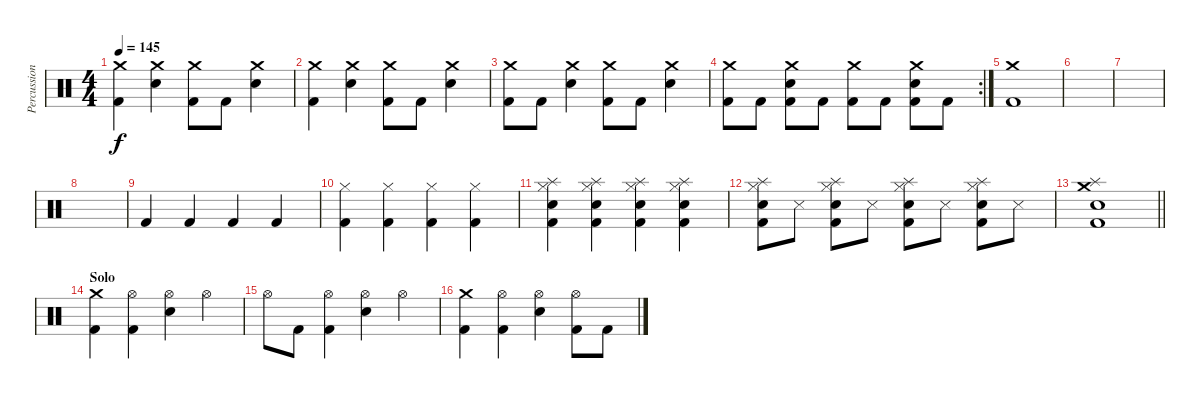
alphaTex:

\track ("Percussion" "Percussion") {instrument percussion}
\staff {score}
\articulation defaults
\ts (4 4)
\tempo 145
\clef neutral
\ks c
("Crash medium (hit)" "Kick (hit) 2").4{dy f} ("Crash medium (hit)" "Snare (hit) 2").4 ("Crash medium (hit)" "Kick (hit) 2").8 "Kick (hit) 2".8 ("Crash medium (hit)" "Snare (hit) 2").4 |
("Crash medium (hit)" "Kick (hit) 2").4 ("Crash medium (hit)" "Snare (hit) 2").4 ("Crash medium (hit)" "Kick (hit) 2").8 "Kick (hit) 2".8 ("Crash medium (hit)" "Snare (hit) 2").4 |
("Crash medium (hit)" "Kick (hit) 2").8 "Kick (hit) 2".8 ("Crash medium (hit)" "Snare (hit) 2").4 ("Crash medium (hit)" "Kick (hit) 2").8 "Kick (hit) 2".8 ("Crash medium (hit)" "Snare (hit) 2").4 |
\rc 2
("Crash medium (hit)" "Kick (hit) 2").8 "Kick (hit) 2".8 ("Crash medium (hit)" "Snare (hit) 2" "Kick (hit) 2").8 "Kick (hit) 2".8 ("Crash medium (hit)" "Kick (hit) 2").8 "Kick (hit) 2".8 ("Crash medium (hit)" "Snare (hit) 2" "Kick (hit) 2").8 "Kick (hit) 2".8 |
("Crash medium (hit)" "Kick (hit) 2").1 |
|
|
|
"Kick (hit) 2".4 "Kick (hit) 2".4 "Kick (hit) 2".4 "Kick (hit) 2".4 |
("Hi-Hat (closed)" "Kick (hit) 2").4 ("Hi-Hat (closed)" "Kick (hit) 2").4 ("Hi-Hat (closed)" "Kick (hit) 2").4 ("Hi-Hat (closed)" "Kick (hit) 2").4 |
("Hi-Hat (closed)" "Splash (hit)" "Snare (hit) 2" "Kick (hit) 2").4 ("Hi-Hat (closed)" "Splash (hit)" "Snare (hit) 2" "Kick (hit) 2").4 ("Hi-Hat (closed)" "Splash (hit)" "Snare (hit) 2" "Kick (hit) 2").4 ("Hi-Hat (closed)" "Splash (hit)" "Snare (hit) 2" "Kick (hit) 2").4 |
("Hi-Hat (closed)" "Splash (hit)" "Snare (hit) 2" "Kick (hit) 2").8 "Snare (side stick) 3".8 ("Hi-Hat (closed)" "Splash (hit)" "Snare (hit) 2" "Kick (hit) 2").8 "Snare (side stick) 3".8 ("Hi-Hat (closed)" "Splash (hit)" "Snare (hit) 2" "Kick (hit) 2").8 "Snare (side stick) 3".8 ("Hi-Hat (closed)" "Splash (hit)" "Snare (hit) 2" "Kick (hit) 2").8 "Snare (side stick) 3".8 |
\barLineRight lightlight
("Crash medium (hit)" "Splash (hit)" "Snare (hit) 2" "Kick (hit) 2").1 |
\section ("" "Solo")
("Crash medium (hit)" "Kick (hit) 2").4 ("Hi-Hat (open)" "Kick (hit) 2").4 ("Hi-Hat (open)" "Snare (hit) 2").4 "Hi-Hat (open)".4 |
"Hi-Hat (open)".8 "Kick (hit) 2".8 ("Hi-Hat (open)" "Kick (hit) 2").4 ("Hi-Hat (open)" "Snare (hit) 2").4 "Hi-Hat (open)".4 |
("Crash medium (hit)" "Kick (hit) 2").4 ("Hi-Hat (open)" "Kick (hit) 2").4 ("Hi-Hat (open)" "Snare (hit) 2").4 ("Hi-Hat (open)" "Kick (hit) 2").8 "Kick (hit) 2".8
